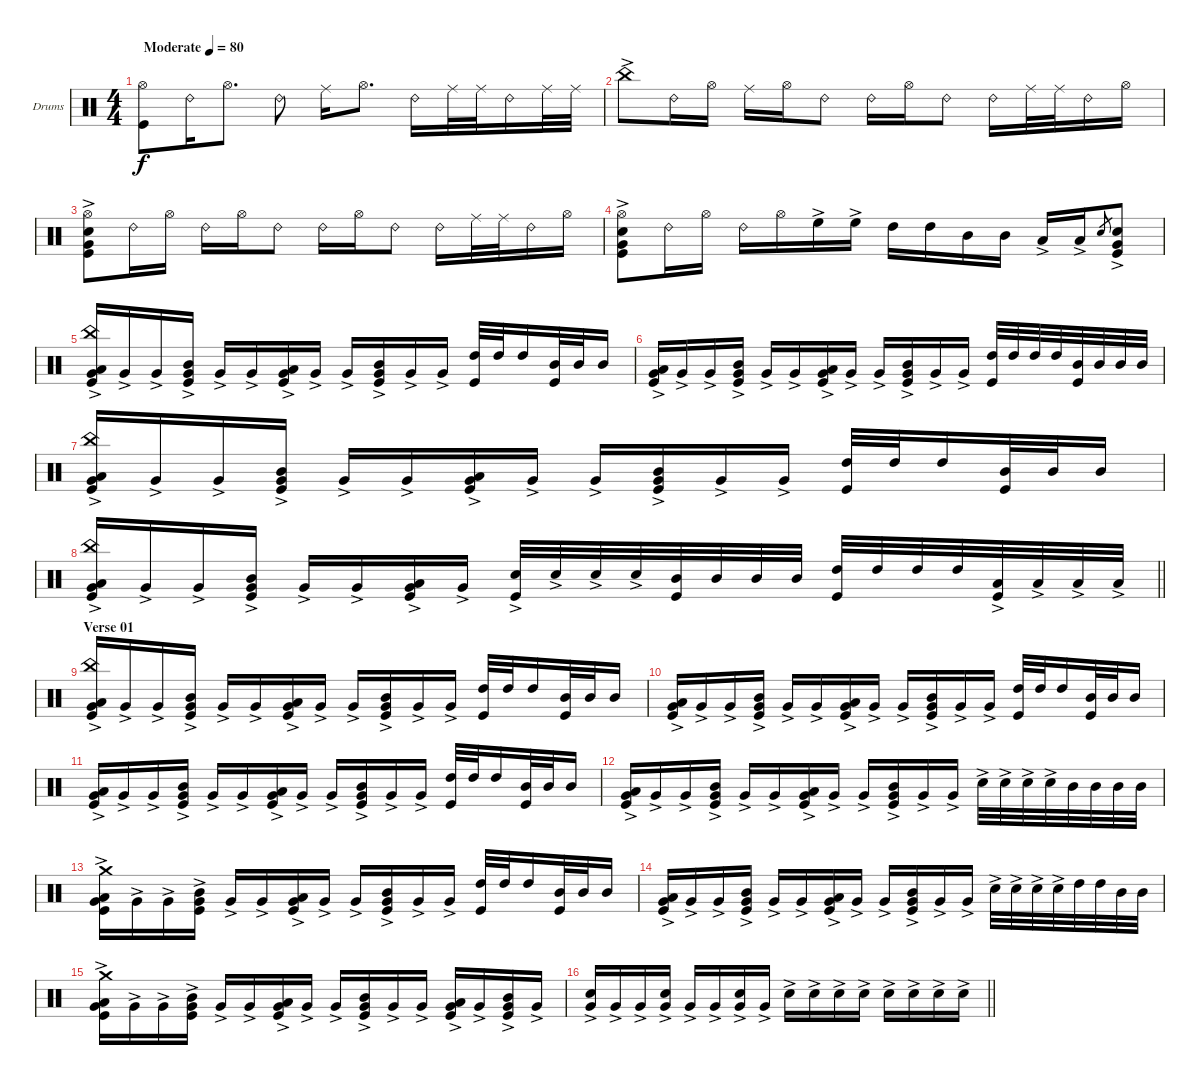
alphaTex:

\bracketExtendMode groupsimilarinstruments
\firstSystemTrackNameOrientation horizontal
\otherSystemsTrackNameOrientation horizontal
\track ("Drumkit" "Drums") {instrument percussion}
\staff {score}
\articulation defaults
\ts (4 4)
\beaming (8 2 2 2 2)
\tempo (80 "Moderate")
\clef neutral
\ks c
("Kick (hit)" "Hi-Hat (open)").8{dy f} "Ride (bell) 2".16 "Hi-Hat (open)".8{d} "Ride (bell) 2".8 "Ride (middle)".16 "Hi-Hat (open)".8{d} "Ride (bell) 2".16 "Ride (middle)".32 "Ride (middle)".32 "Ride (bell) 2".16 "Ride (middle)".32 "Ride (middle)".32 |
"China (hit)"{ac}.8 "Ride (bell) 2".16 "Hi-Hat (open)".16 "Ride (middle)".16 "Hi-Hat (open)".16 "Ride (bell) 2".8 "Ride (bell) 2".16 "Hi-Hat (open)".16 "Ride (bell) 2".8 "Ride (bell) 2".16 "Ride (middle)".32 "Ride (middle)".32 "Ride (bell) 2".16 "Hi-Hat (open)".16 |
("Snare (hit) 2"{ac} "Kick (hit)" "Very Low Tom (hit)"{ac} "Hi-Hat (open)").8 "Ride (bell) 2".16 "Hi-Hat (open)".16 "Ride (bell) 2".16 "Hi-Hat (open)".16 "Ride (bell) 2".8 "Ride (bell) 2".16 "Hi-Hat (open)".16 "Ride (bell) 2".8 "Ride (bell) 2".16 "Ride (middle)".32 "Ride (middle)".32 "Ride (bell) 2".16 "Hi-Hat (open)".16 |
("Snare (hit) 2"{ac} "Kick (hit)" "Very Low Tom (hit)"{ac} "Hi-Hat (open)").8 "Ride (bell) 2".16 "Hi-Hat (open)".16 "Ride (bell) 2".16 "Hi-Hat (open)".16 "High Floor Tom (hit)"{ac}.16 "High Floor Tom (hit)"{ac}.16 "High Tom (hit)".16 "High Tom (hit)".16 "Mid Tom (hit)".16 "Mid Tom (hit)".16 "Low Tom (hit)"{ac}.16 "Low Tom (hit)"{ac}.16 "Snare (hit) 2".8{gr} ("Snare (hit) 2"{ac} "Very Low Tom (hit)"{ac} "Kick (hit)").8 |
("China (hit)"{ac} "Low Tom (hit)"{ac} "Kick (hit)" "Very Low Tom (hit)"{ac}).16 "Very Low Tom (hit)"{ac}.16 "Very Low Tom (hit)"{ac}.16 ("Kick (hit)" "Very Low Tom (hit)"{ac} "Mid Tom (hit)").16 "Very Low Tom (hit)"{ac}.16 "Very Low Tom (hit)"{ac}.16 ("Low Tom (hit)"{ac} "Kick (hit)" "Very Low Tom (hit)"{ac}).16 "Very Low Tom (hit)"{ac}.16 "Very Low Tom (hit)"{ac}.16 ("Kick (hit)" "Very Low Tom (hit)"{ac} "Mid Tom (hit)").16 "Very Low Tom (hit)"{ac}.16 "Very Low Tom (hit)"{ac}.16 ("High Tom (hit)" "Kick (hit)").32 "High Tom (hit)".32 "High Tom (hit)".16 ("Mid Tom (hit)" "Kick (hit)").32 "Mid Tom (hit)".32 "Mid Tom (hit)".16 |
("Low Tom (hit)"{ac} "Kick (hit)" "Very Low Tom (hit)"{ac}).16 "Very Low Tom (hit)"{ac}.16 "Very Low Tom (hit)"{ac}.16 ("Kick (hit)" "Very Low Tom (hit)"{ac} "Mid Tom (hit)").16 "Very Low Tom (hit)"{ac}.16 "Very Low Tom (hit)"{ac}.16 ("Low Tom (hit)"{ac} "Kick (hit)" "Very Low Tom (hit)"{ac}).16 "Very Low Tom (hit)"{ac}.16 "Very Low Tom (hit)"{ac}.16 ("Kick (hit)" "Very Low Tom (hit)"{ac} "Mid Tom (hit)").16 "Very Low Tom (hit)"{ac}.16 "Very Low Tom (hit)"{ac}.16 ("High Tom (hit)" "Kick (hit)").32 "High Tom (hit)".32 "High Tom (hit)".32 "High Tom (hit)".32 ("Mid Tom (hit)" "Kick (hit)").32 "Mid Tom (hit)".32 "Mid Tom (hit)".32 "Mid Tom (hit)".32 |
("China (hit)"{ac} "Low Tom (hit)"{ac} "Kick (hit)" "Very Low Tom (hit)"{ac}).16 "Very Low Tom (hit)"{ac}.16 "Very Low Tom (hit)"{ac}.16 ("Kick (hit)" "Very Low Tom (hit)"{ac} "Mid Tom (hit)").16 "Very Low Tom (hit)"{ac}.16 "Very Low Tom (hit)"{ac}.16 ("Low Tom (hit)"{ac} "Kick (hit)" "Very Low Tom (hit)"{ac}).16 "Very Low Tom (hit)"{ac}.16 "Very Low Tom (hit)"{ac}.16 ("Kick (hit)" "Very Low Tom (hit)"{ac} "Mid Tom (hit)").16 "Very Low Tom (hit)"{ac}.16 "Very Low Tom (hit)"{ac}.16 ("High Tom (hit)" "Kick (hit)").32 "High Tom (hit)".32 "High Tom (hit)".16 ("Mid Tom (hit)" "Kick (hit)").32 "Mid Tom (hit)".32 "Mid Tom (hit)".16 |
\barLineRight lightlight
("China (hit)"{ac} "Low Tom (hit)"{ac} "Kick (hit)" "Very Low Tom (hit)"{ac}).16 "Very Low Tom (hit)"{ac}.16 "Very Low Tom (hit)"{ac}.16 ("Kick (hit)" "Very Low Tom (hit)"{ac} "Mid Tom (hit)").16 "Very Low Tom (hit)"{ac}.16 "Very Low Tom (hit)"{ac}.16 ("Low Tom (hit)"{ac} "Kick (hit)" "Very Low Tom (hit)"{ac}).16 "Very Low Tom (hit)"{ac}.16 ("Snare (hit) 2"{ac} "Kick (hit)").32 "Snare (hit) 2"{ac}.32 "Snare (hit) 2"{ac}.32 "Snare (hit) 2"{ac}.32 ("Mid Tom (hit)" "Kick (hit)").32 "Mid Tom (hit)".32 "Mid Tom (hit)".32 "Mid Tom (hit)".32 ("High Tom (hit)" "Kick (hit)").32 "High Tom (hit)".32 "High Tom (hit)".32 "High Tom (hit)".32 ("Low Tom (hit)"{ac} "Kick (hit)").32 "Low Tom (hit)"{ac}.32 "Low Tom (hit)"{ac}.32 "Low Tom (hit)"{ac}.32 |
\section ("" "Verse 01")
("China (hit)"{ac} "Low Tom (hit)"{ac} "Kick (hit)" "Very Low Tom (hit)"{ac}).16 "Very Low Tom (hit)"{ac}.16 "Very Low Tom (hit)"{ac}.16 ("Kick (hit)" "Very Low Tom (hit)"{ac} "Mid Tom (hit)").16 "Very Low Tom (hit)"{ac}.16 "Very Low Tom (hit)"{ac}.16 ("Low Tom (hit)"{ac} "Kick (hit)" "Very Low Tom (hit)"{ac}).16 "Very Low Tom (hit)"{ac}.16 "Very Low Tom (hit)"{ac}.16 ("Kick (hit)" "Very Low Tom (hit)"{ac} "Mid Tom (hit)").16 "Very Low Tom (hit)"{ac}.16 "Very Low Tom (hit)"{ac}.16 ("High Tom (hit)" "Kick (hit)").32 "High Tom (hit)".32 "High Tom (hit)".16 ("Mid Tom (hit)" "Kick (hit)").32 "Mid Tom (hit)".32 "Mid Tom (hit)".16 |
("Low Tom (hit)"{ac} "Kick (hit)" "Very Low Tom (hit)"{ac}).16 "Very Low Tom (hit)"{ac}.16 "Very Low Tom (hit)"{ac}.16 ("Kick (hit)" "Very Low Tom (hit)"{ac} "Mid Tom (hit)").16 "Very Low Tom (hit)"{ac}.16 "Very Low Tom (hit)"{ac}.16 ("Low Tom (hit)"{ac} "Kick (hit)" "Very Low Tom (hit)"{ac}).16 "Very Low Tom (hit)"{ac}.16 "Very Low Tom (hit)"{ac}.16 ("Kick (hit)" "Very Low Tom (hit)"{ac} "Mid Tom (hit)").16 "Very Low Tom (hit)"{ac}.16 "Very Low Tom (hit)"{ac}.16 ("High Tom (hit)" "Kick (hit)").32 "High Tom (hit)".32 "High Tom (hit)".16 ("Mid Tom (hit)" "Kick (hit)").32 "Mid Tom (hit)".32 "Mid Tom (hit)".16 |
("Low Tom (hit)"{ac} "Kick (hit)" "Very Low Tom (hit)"{ac}).16 "Very Low Tom (hit)"{ac}.16 "Very Low Tom (hit)"{ac}.16 ("Kick (hit)" "Very Low Tom (hit)"{ac} "Mid Tom (hit)").16 "Very Low Tom (hit)"{ac}.16 "Very Low Tom (hit)"{ac}.16 ("Low Tom (hit)"{ac} "Kick (hit)" "Very Low Tom (hit)"{ac}).16 "Very Low Tom (hit)"{ac}.16 "Very Low Tom (hit)"{ac}.16 ("Kick (hit)" "Very Low Tom (hit)"{ac} "Mid Tom (hit)").16 "Very Low Tom (hit)"{ac}.16 "Very Low Tom (hit)"{ac}.16 ("High Tom (hit)" "Kick (hit)").32 "High Tom (hit)".32 "High Tom (hit)".16 ("Mid Tom (hit)" "Kick (hit)").32 "Mid Tom (hit)".32 "Mid Tom (hit)".16 |
("Low Tom (hit)"{ac} "Kick (hit)" "Very Low Tom (hit)"{ac}).16 "Very Low Tom (hit)"{ac}.16 "Very Low Tom (hit)"{ac}.16 ("Kick (hit)" "Very Low Tom (hit)"{ac} "Mid Tom (hit)").16 "Very Low Tom (hit)"{ac}.16 "Very Low Tom (hit)"{ac}.16 ("Low Tom (hit)"{ac} "Kick (hit)" "Very Low Tom (hit)"{ac}).16 "Very Low Tom (hit)"{ac}.16 "Very Low Tom (hit)"{ac}.16 ("Kick (hit)" "Very Low Tom (hit)"{ac} "Mid Tom (hit)").16 "Very Low Tom (hit)"{ac}.16 "Very Low Tom (hit)"{ac}.16 "Snare (hit) 2"{ac}.32 "Snare (hit) 2"{ac}.32 "Snare (hit) 2"{ac}.32 "Snare (hit) 2"{ac}.32 "Mid Tom (hit)".32 "Mid Tom (hit)".32 "Mid Tom (hit)".32 "Mid Tom (hit)".32 |
("Low Tom (hit)"{ac} "Kick (hit)" "Very Low Tom (hit)"{ac} "Crash medium (hit)"{ac}).16 "Very Low Tom (hit)"{ac}.16 "Very Low Tom (hit)"{ac}.16 ("Kick (hit)" "Very Low Tom (hit)"{ac} "Mid Tom (hit)").16 "Very Low Tom (hit)"{ac}.16 "Very Low Tom (hit)"{ac}.16 ("Low Tom (hit)"{ac} "Kick (hit)" "Very Low Tom (hit)"{ac}).16 "Very Low Tom (hit)"{ac}.16 "Very Low Tom (hit)"{ac}.16 ("Kick (hit)" "Very Low Tom (hit)"{ac} "Mid Tom (hit)").16 "Very Low Tom (hit)"{ac}.16 "Very Low Tom (hit)"{ac}.16 ("High Tom (hit)" "Kick (hit)").32 "High Tom (hit)".32 "High Tom (hit)".16 ("Mid Tom (hit)" "Kick (hit)").32 "Mid Tom (hit)".32 "Mid Tom (hit)".16 |
("Low Tom (hit)"{ac} "Kick (hit)" "Very Low Tom (hit)"{ac}).16 "Very Low Tom (hit)"{ac}.16 "Very Low Tom (hit)"{ac}.16 ("Kick (hit)" "Very Low Tom (hit)"{ac} "Mid Tom (hit)").16 "Very Low Tom (hit)"{ac}.16 "Very Low Tom (hit)"{ac}.16 ("Low Tom (hit)"{ac} "Kick (hit)" "Very Low Tom (hit)"{ac}).16 "Very Low Tom (hit)"{ac}.16 "Very Low Tom (hit)"{ac}.16 ("Kick (hit)" "Very Low Tom (hit)"{ac} "Mid Tom (hit)").16 "Very Low Tom (hit)"{ac}.16 "Very Low Tom (hit)"{ac}.16 "Snare (hit) 2"{ac}.32 "Snare (hit) 2"{ac}.32 "Snare (hit) 2"{ac}.32 "Snare (hit) 2"{ac}.32 "High Tom (hit)".32 "High Tom (hit)".32 "Mid Tom (hit)".32 "Mid Tom (hit)".32 |
("Low Tom (hit)"{ac} "Kick (hit)" "Very Low Tom (hit)"{ac} "Crash medium (hit)"{ac}).16 "Very Low Tom (hit)"{ac}.16 "Very Low Tom (hit)"{ac}.16 ("Kick (hit)" "Very Low Tom (hit)"{ac} "Mid Tom (hit)").16 "Very Low Tom (hit)"{ac}.16 "Very Low Tom (hit)"{ac}.16 ("Low Tom (hit)"{ac} "Kick (hit)" "Very Low Tom (hit)"{ac}).16 "Very Low Tom (hit)"{ac}.16 "Very Low Tom (hit)"{ac}.16 ("Kick (hit)" "Very Low Tom (hit)"{ac} "Mid Tom (hit)").16 "Very Low Tom (hit)"{ac}.16 "Very Low Tom (hit)"{ac}.16 ("Low Tom (hit)"{ac} "Kick (hit)" "Very Low Tom (hit)"{ac}).16 "Very Low Tom (hit)"{ac}.16 ("Kick (hit)" "Very Low Tom (hit)"{ac} "Mid Tom (hit)").16 "Very Low Tom (hit)"{ac}.16 |
\barLineRight lightlight
("Snare (hit) 2"{ac} "Very Low Tom (hit)"{ac}).16 "Very Low Tom (hit)"{ac}.16 "Very Low Tom (hit)"{ac}.16 ("Snare (hit) 2"{ac} "Very Low Tom (hit)"{ac}).16 "Very Low Tom (hit)"{ac}.16 "Very Low Tom (hit)"{ac}.16 ("Snare (hit) 2"{ac} "Very Low Tom (hit)"{ac}).16 "Very Low Tom (hit)"{ac}.16 "Snare (hit) 2"{ac}.16 "Snare (hit) 2"{ac}.16 "Snare (hit) 2"{ac}.16 "Snare (hit) 2"{ac}.16 "Snare (hit) 2"{ac}.16 "Snare (hit) 2"{ac}.16 "Snare (hit) 2"{ac}.16 "Snare (hit) 2"{ac}.16
